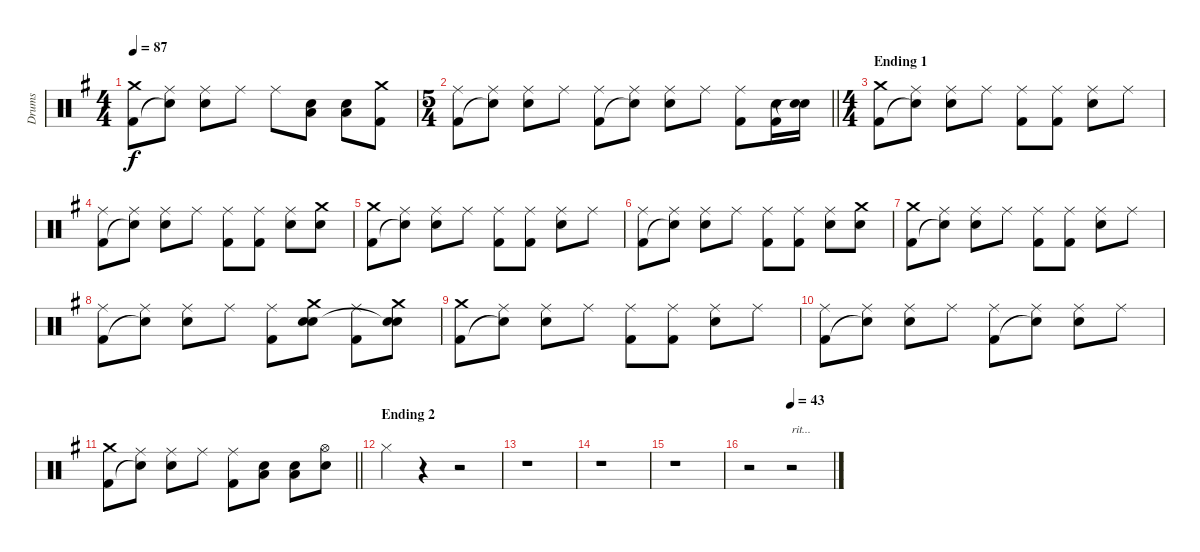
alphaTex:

\track ("Drums" "Drums") {instrument percussion}
\staff {score}
\articulation defaults
\ts (4 4)
\tempo 87
\clef neutral
\ks g
("Crash medium (hit)" "Kick (hit) 2").8{dy f} ("Ride (middle)" "Snare (hit)"{t}).8 ("Ride (middle)" "Electric Snare (hit)").8 "Ride (middle)".8 "Ride (middle)".8 ("Electric Snare (hit)" "Low Tom (hit)").8 ("Electric Snare (hit)" "Low Tom (hit)").8 ("Crash medium (hit)" "Kick (hit) 2").8 |
\ts (5 4)
\barLineRight lightlight
("Ride (middle)" "Kick (hit) 2").8 ("Ride (middle)" "Snare (hit)"{t}).8 ("Ride (middle)" "Electric Snare (hit)").8 "Ride (middle)".8 ("Ride (middle)" "Kick (hit) 2").8 ("Ride (middle)" "Snare (hit)"{t}).8 ("Ride (middle)" "Electric Snare (hit)").8 "Ride (middle)".8 ("Ride (middle)" "Kick (hit) 2").8 ("Electric Snare (hit)" "Kick (hit) 2").16 ("Electric Snare (hit)" "Snare (hit)"{t}).16 |
\ts (4 4)
\section ("" "Ending 1")
("Crash medium (hit)" "Kick (hit) 2").8 ("Ride (middle)" "Snare (hit)"{t}).8 ("Ride (middle)" "Electric Snare (hit)").8 "Ride (middle)".8 ("Ride (middle)" "Kick (hit) 2").8 ("Ride (middle)" "Kick (hit) 2").8 ("Ride (middle)" "Electric Snare (hit)").8 "Ride (middle)".8 |
("Ride (middle)" "Kick (hit) 2").8 ("Ride (middle)" "Snare (hit)"{t}).8 ("Ride (middle)" "Electric Snare (hit)").8 "Ride (middle)".8 ("Ride (middle)" "Kick (hit) 2").8 ("Ride (middle)" "Kick (hit) 2").8 ("Ride (middle)" "Electric Snare (hit)").8 ("Crash medium (hit)" "Electric Snare (hit)").8 |
("Crash medium (hit)" "Kick (hit) 2").8 ("Ride (middle)" "Snare (hit)"{t}).8 ("Ride (middle)" "Electric Snare (hit)").8 "Ride (middle)".8 ("Ride (middle)" "Kick (hit) 2").8 ("Ride (middle)" "Kick (hit) 2").8 ("Ride (middle)" "Electric Snare (hit)").8 "Ride (middle)".8 |
("Ride (middle)" "Kick (hit) 2").8 ("Ride (middle)" "Snare (hit)"{t}).8 ("Ride (middle)" "Electric Snare (hit)").8 "Ride (middle)".8 ("Ride (middle)" "Kick (hit) 2").8 ("Ride (middle)" "Kick (hit) 2").8 ("Ride (middle)" "Electric Snare (hit)").8 ("Crash medium (hit)" "Electric Snare (hit)").8 |
("Crash medium (hit)" "Kick (hit) 2").8 ("Ride (middle)" "Snare (hit)"{t}).8 ("Ride (middle)" "Electric Snare (hit)").8 "Ride (middle)".8 ("Ride (middle)" "Kick (hit) 2").8 ("Ride (middle)" "Kick (hit) 2").8 ("Ride (middle)" "Electric Snare (hit)").8 "Ride (middle)".8 |
("Ride (middle)" "Kick (hit) 2").8 ("Ride (middle)" "Snare (hit)"{t}).8 ("Ride (middle)" "Electric Snare (hit)").8 "Ride (middle)".8 ("Ride (middle)" "Kick (hit) 2").8 ("Crash medium (hit)" "Electric Snare (hit)" "Snare (hit)").8 ("Ride (middle)" "Kick (hit) 2").8 ("Crash medium (hit)" "Electric Snare (hit)" "Snare (hit)"{t}).8 |
("Crash medium (hit)" "Kick (hit) 2").8 ("Ride (middle)" "Snare (hit)"{t}).8 ("Ride (middle)" "Electric Snare (hit)").8 "Ride (middle)".8 ("Ride (middle)" "Kick (hit) 2").8 ("Ride (middle)" "Kick (hit) 2").8 ("Ride (middle)" "Electric Snare (hit)").8 "Ride (middle)".8 |
("Ride (middle)" "Kick (hit) 2").8 ("Ride (middle)" "Snare (hit)"{t}).8 ("Ride (middle)" "Electric Snare (hit)").8 "Ride (middle)".8 ("Ride (middle)" "Kick (hit) 2").8 ("Ride (middle)" "Snare (hit)"{t}).8 ("Ride (middle)" "Electric Snare (hit)").8 "Ride (middle)".8 |
\barLineRight lightlight
("Crash medium (hit)" "Kick (hit) 2").8 ("Ride (middle)" "Snare (hit)"{t}).8 ("Ride (middle)" "Electric Snare (hit)").8 "Ride (middle)".8 ("Ride (middle)" "Kick (hit) 2").8 ("Electric Snare (hit)" "Low Tom (hit)").8 ("Electric Snare (hit)" "Low Tom (hit)").8 ("Hi-Hat (open)" "Electric Snare (hit)").8 |
\section ("" "Ending 2")
"Hi-Hat (closed)".4 r.4 r.2 |
r.1 |
r.1 |
r.1 |
\tempo (43 0.5)
r.2 r.2{txt "rit..."}
